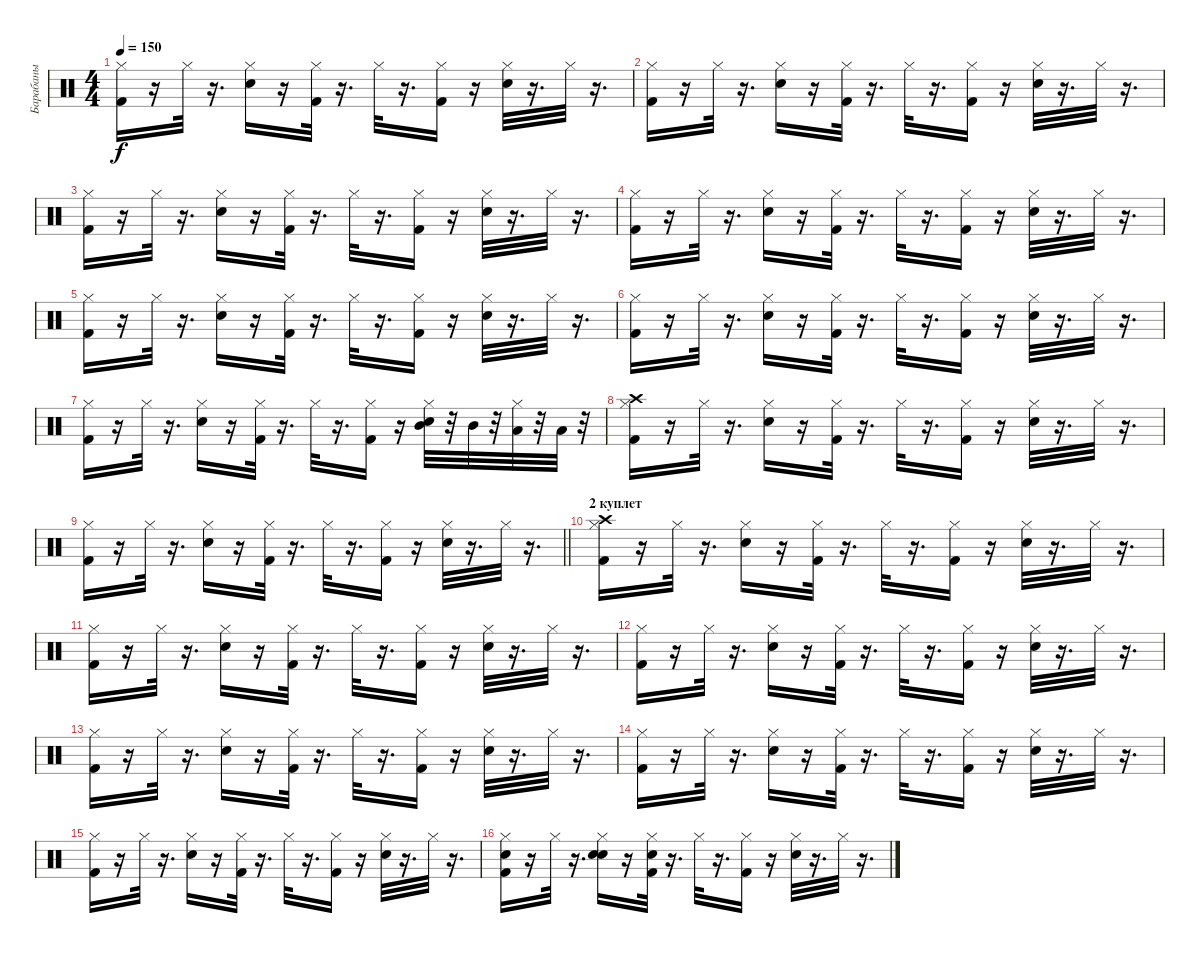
\track ("Барабаны" "Барабаны") {instrument percussion}
\staff {score}
\articulation defaults
\ts (4 4)
\tempo 150
\clef neutral
\ks c
("Hi-Hat (closed)" "Kick (hit) 2").16{dy f} r.16 "Hi-Hat (closed)".32 r.16{d} ("Electric Snare (hit)" "Hi-Hat (closed)").16 r.16 ("Kick (hit) 2" "Hi-Hat (closed)").32 r.16{d} "Hi-Hat (closed)".32 r.16{d} ("Kick (hit) 2" "Hi-Hat (closed)").16 r.16 ("Electric Snare (hit)" "Hi-Hat (closed)").32 r.16{d} "Hi-Hat (closed)".32 r.16{d} |
("Kick (hit) 2" "Hi-Hat (closed)").16 r.16 "Hi-Hat (closed)".32 r.16{d} ("Electric Snare (hit)" "Hi-Hat (closed)").16 r.16 ("Kick (hit) 2" "Hi-Hat (closed)").32 r.16{d} "Hi-Hat (closed)".32 r.16{d} ("Kick (hit) 2" "Hi-Hat (closed)").16 r.16 ("Electric Snare (hit)" "Hi-Hat (closed)").32 r.16{d} "Hi-Hat (closed)".32 r.16{d} |
("Kick (hit) 2" "Hi-Hat (closed)").16 r.16 "Hi-Hat (closed)".32 r.16{d} ("Electric Snare (hit)" "Hi-Hat (closed)").16 r.16 ("Kick (hit) 2" "Hi-Hat (closed)").32 r.16{d} "Hi-Hat (closed)".32 r.16{d} ("Kick (hit) 2" "Hi-Hat (closed)").16 r.16 ("Electric Snare (hit)" "Hi-Hat (closed)").32 r.16{d} "Hi-Hat (closed)".32 r.16{d} |
("Hi-Hat (closed)" "Kick (hit) 2").16 r.16 "Hi-Hat (closed)".32 r.16{d} ("Electric Snare (hit)" "Hi-Hat (closed)").16 r.16 ("Kick (hit) 2" "Hi-Hat (closed)").32 r.16{d} "Hi-Hat (closed)".32 r.16{d} ("Hi-Hat (closed)" "Kick (hit) 2").16 r.16 ("Hi-Hat (closed)" "Electric Snare (hit)").32 r.16{d} "Hi-Hat (closed)".32 r.16{d} |
("Kick (hit) 2" "Hi-Hat (closed)").16 r.16 "Hi-Hat (closed)".32 r.16{d} ("Electric Snare (hit)" "Hi-Hat (closed)").16 r.16 ("Kick (hit) 2" "Hi-Hat (closed)").32 r.16{d} "Hi-Hat (closed)".32 r.16{d} ("Kick (hit) 2" "Hi-Hat (closed)").16 r.16 ("Electric Snare (hit)" "Hi-Hat (closed)").32 r.16{d} "Hi-Hat (closed)".32 r.16{d} |
("Kick (hit) 2" "Hi-Hat (closed)").16 r.16 "Hi-Hat (closed)".32 r.16{d} ("Electric Snare (hit)" "Hi-Hat (closed)").16 r.16 ("Kick (hit) 2" "Hi-Hat (closed)").32 r.16{d} "Hi-Hat (closed)".32 r.16{d} ("Kick (hit) 2" "Hi-Hat (closed)").16 r.16 ("Electric Snare (hit)" "Hi-Hat (closed)").32 r.16{d} "Hi-Hat (closed)".32 r.16{d} |
("Kick (hit) 2" "Hi-Hat (closed)").16 r.16 "Hi-Hat (closed)".32 r.16{d} ("Electric Snare (hit)" "Hi-Hat (closed)").16 r.16 ("Kick (hit) 2" "Hi-Hat (closed)").32 r.16{d} "Hi-Hat (closed)".32 r.16{d} ("Kick (hit) 2" "Hi-Hat (closed)").16 r.16 ("Electric Snare (hit)" "Mid Tom (hit)" "Hi-Hat (closed)").32 r.32 "Mid Tom (hit)".32 r.32 ("Hi-Hat (closed)" "Low Tom (hit)").32 r.32 "Low Tom (hit)".32 r.32 |
("Crash high (hit)" "Hi-Hat (closed)" "Kick (hit) 2").16 r.16 "Hi-Hat (closed)".32 r.16{d} ("Electric Snare (hit)" "Hi-Hat (closed)").16 r.16 ("Kick (hit) 2" "Hi-Hat (closed)").32 r.16{d} "Hi-Hat (closed)".32 r.16{d} ("Kick (hit) 2" "Hi-Hat (closed)").16 r.16 ("Electric Snare (hit)" "Hi-Hat (closed)").32 r.16{d} "Hi-Hat (closed)".32 r.16{d} |
\barLineRight lightlight
("Kick (hit) 2" "Hi-Hat (closed)").16 r.16 "Hi-Hat (closed)".32 r.16{d} ("Electric Snare (hit)" "Hi-Hat (closed)").16 r.16 ("Kick (hit) 2" "Hi-Hat (closed)").32 r.16{d} "Hi-Hat (closed)".32 r.16{d} ("Kick (hit) 2" "Hi-Hat (closed)").16 r.16 ("Electric Snare (hit)" "Hi-Hat (closed)").32 r.16{d} "Hi-Hat (closed)".32 r.16{d} |
\section ("" "2 куплет")
("Crash high (hit)" "Hi-Hat (closed)" "Kick (hit) 2").16 r.16 "Hi-Hat (closed)".32 r.16{d} ("Hi-Hat (closed)" "Electric Snare (hit)").16 r.16 ("Hi-Hat (closed)" "Kick (hit) 2").32 r.16{d} "Hi-Hat (closed)".32 r.16{d} ("Kick (hit) 2" "Hi-Hat (closed)").16 r.16 ("Electric Snare (hit)" "Hi-Hat (closed)").32 r.16{d} "Hi-Hat (closed)".32 r.16{d} |
("Hi-Hat (closed)" "Kick (hit) 2").16 r.16 "Hi-Hat (closed)".32 r.16{d} ("Electric Snare (hit)" "Hi-Hat (closed)").16 r.16 ("Kick (hit) 2" "Hi-Hat (closed)").32 r.16{d} "Hi-Hat (closed)".32 r.16{d} ("Kick (hit) 2" "Hi-Hat (closed)").16 r.16 ("Electric Snare (hit)" "Hi-Hat (closed)").32 r.16{d} "Hi-Hat (closed)".32 r.16{d} |
("Hi-Hat (closed)" "Kick (hit) 2").16 r.16 "Hi-Hat (closed)".32 r.16{d} ("Electric Snare (hit)" "Hi-Hat (closed)").16 r.16 ("Kick (hit) 2" "Hi-Hat (closed)").32 r.16{d} "Hi-Hat (closed)".32 r.16{d} ("Kick (hit) 2" "Hi-Hat (closed)").16 r.16 ("Electric Snare (hit)" "Hi-Hat (closed)").32 r.16{d} "Hi-Hat (closed)".32 r.16{d} |
("Kick (hit) 2" "Hi-Hat (closed)").16 r.16 "Hi-Hat (closed)".32 r.16{d} ("Electric Snare (hit)" "Hi-Hat (closed)").16 r.16 ("Kick (hit) 2" "Hi-Hat (closed)").32 r.16{d} "Hi-Hat (closed)".32 r.16{d} ("Kick (hit) 2" "Hi-Hat (closed)").16 r.16 ("Electric Snare (hit)" "Hi-Hat (closed)").32 r.16{d} "Hi-Hat (closed)".32 r.16{d} |
("Hi-Hat (closed)" "Kick (hit) 2").16 r.16 "Hi-Hat (closed)".32 r.16{d} ("Hi-Hat (closed)" "Electric Snare (hit)").16 r.16 ("Kick (hit) 2" "Hi-Hat (closed)").32 r.16{d} "Hi-Hat (closed)".32 r.16{d} ("Kick (hit) 2" "Hi-Hat (closed)").16 r.16 ("Hi-Hat (closed)" "Electric Snare (hit)").32 r.16{d} "Hi-Hat (closed)".32 r.16{d} |
("Hi-Hat (closed)" "Kick (hit) 2").16 r.16 "Hi-Hat (closed)".32 r.16{d} ("Electric Snare (hit)" "Hi-Hat (closed)").16 r.16 ("Kick (hit) 2" "Hi-Hat (closed)").32 r.16{d} "Hi-Hat (closed)".32 r.16{d} ("Kick (hit) 2" "Hi-Hat (closed)").16 r.16 ("Electric Snare (hit)" "Hi-Hat (closed)").32 r.16{d} "Hi-Hat (closed)".32 r.16{d} |
("Kick (hit) 2" "Hand Clap (hit)" "Hi-Hat (closed)").16 r.16 "Hi-Hat (closed)".32 r.16{d} ("Electric Snare (hit)" "Hand Clap (hit)" "Hi-Hat (closed)").16 r.16 ("Kick (hit) 2" "Hi-Hat (closed)" "Hand Clap (hit)").32 r.16{d} "Hi-Hat (closed)".32 r.16{d} ("Kick (hit) 2" "Hi-Hat (closed)").16 r.16 ("Electric Snare (hit)" "Hi-Hat (closed)").32 r.16{d} "Hi-Hat (closed)".32 r.16{d}
